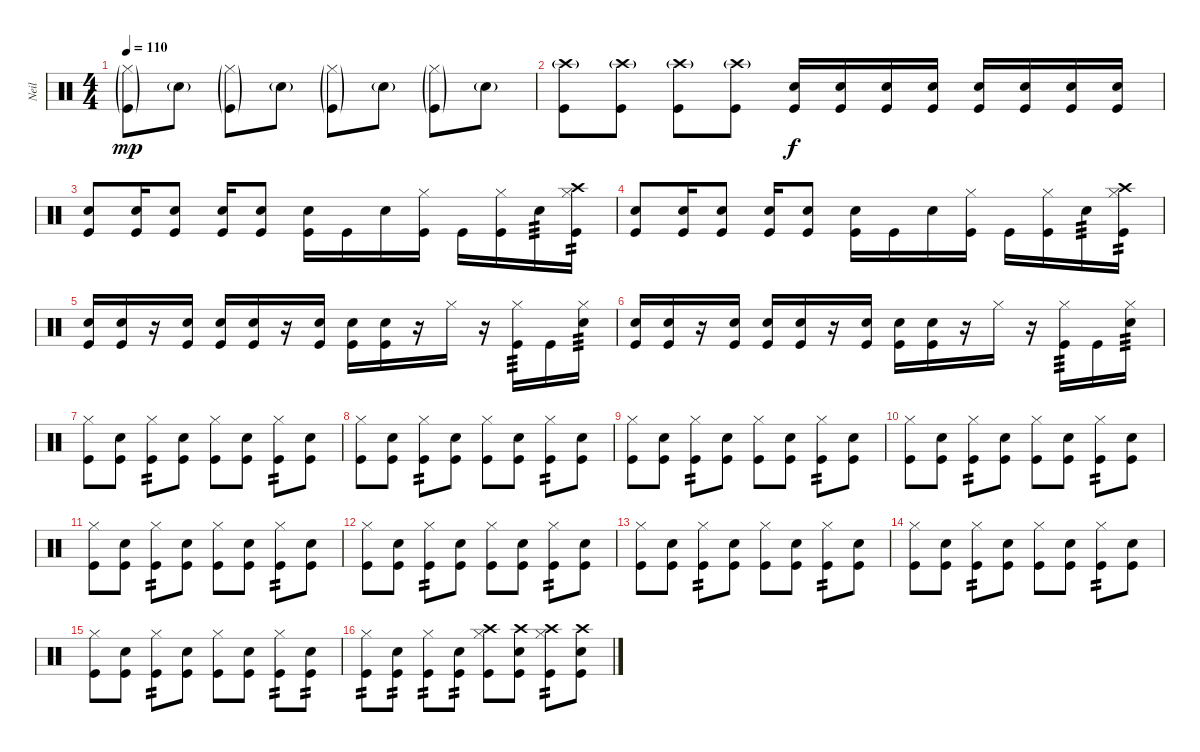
\track ("Neil" "Neil") {instrument percussion}
\staff {score}
\articulation defaults
\ts (4 4)
\tempo 110
\clef neutral
\ks c
("Hi-Hat (closed)"{g} "Kick (hit)"{g}).8{dy mp} "Snare (hit) 2"{g}.8 ("Hi-Hat (closed)"{g} "Kick (hit)"{g}).8 "Snare (hit) 2"{g}.8 ("Hi-Hat (closed)"{g} "Kick (hit)"{g}).8 "Snare (hit) 2"{g}.8 ("Hi-Hat (closed)"{g} "Kick (hit)"{g}).8 "Snare (hit) 2"{g}.8 |
("Crash high (hit)"{g} "Kick (hit)").8 ("Crash high (hit)"{g} "Kick (hit)").8 ("Crash high (hit)"{g} "Kick (hit)").8 ("Crash high (hit)"{g} "Kick (hit)").8 ("Snare (hit) 2" "Kick (hit)").16{dy f} ("Snare (hit) 2" "Kick (hit)").16 ("Snare (hit) 2" "Kick (hit)").16 ("Snare (hit) 2" "Kick (hit)").16 ("Snare (hit) 2" "Kick (hit)").16 ("Snare (hit) 2" "Kick (hit)").16 ("Snare (hit) 2" "Kick (hit)").16 ("Snare (hit) 2" "Kick (hit)").16 |
("Snare (hit) 2" "Kick (hit)").8 ("Snare (hit) 2" "Kick (hit)").16 ("Snare (hit) 2" "Kick (hit)").8 ("Snare (hit) 2" "Kick (hit)").16 ("Snare (hit) 2" "Kick (hit)").8 ("Snare (hit) 2" "Kick (hit)").16 "Kick (hit)".16 "Snare (hit) 2".16 ("Hi-Hat (closed)" "Kick (hit)").16 "Kick (hit)".16 ("Hi-Hat (closed)" "Kick (hit)").16 "Snare (hit) 2".16{tp 3} ("Crash high (hit)" "Hi-Hat (closed)" "Kick (hit)").16{tp 2} |
("Snare (hit) 2" "Kick (hit)").8 ("Snare (hit) 2" "Kick (hit)").16 ("Snare (hit) 2" "Kick (hit)").8 ("Snare (hit) 2" "Kick (hit)").16 ("Snare (hit) 2" "Kick (hit)").8 ("Snare (hit) 2" "Kick (hit)").16 "Kick (hit)".16 "Snare (hit) 2".16 ("Hi-Hat (closed)" "Kick (hit)").16 "Kick (hit)".16 ("Hi-Hat (closed)" "Kick (hit)").16 "Snare (hit) 2".16{tp 3} ("Crash high (hit)" "Hi-Hat (closed)" "Kick (hit)").16{tp 2} |
("Snare (hit) 2" "Kick (hit)").16 ("Snare (hit) 2" "Kick (hit)").16 r.16 ("Snare (hit) 2" "Kick (hit)").16 ("Snare (hit) 2" "Kick (hit)").16 ("Snare (hit) 2" "Kick (hit)").16 r.16 ("Snare (hit) 2" "Kick (hit)").16 ("Snare (hit) 2" "Kick (hit)").16 ("Snare (hit) 2" "Kick (hit)").16 r.16 "Hi-Hat (closed)".16 r.16 ("Hi-Hat (closed)" "Kick (hit)").16{tp 3} "Kick (hit)".16 ("Hi-Hat (closed)" "Snare (hit) 2").16{tp 3} |
("Snare (hit) 2" "Kick (hit)").16 ("Snare (hit) 2" "Kick (hit)").16 r.16 ("Snare (hit) 2" "Kick (hit)").16 ("Snare (hit) 2" "Kick (hit)").16 ("Snare (hit) 2" "Kick (hit)").16 r.16 ("Snare (hit) 2" "Kick (hit)").16 ("Snare (hit) 2" "Kick (hit)").16 ("Snare (hit) 2" "Kick (hit)").16 r.16 "Hi-Hat (closed)".16 r.16 ("Hi-Hat (closed)" "Kick (hit)").16{tp 3} "Kick (hit)".16 ("Hi-Hat (closed)" "Snare (hit) 2").16{tp 3} |
("Hi-Hat (closed)" "Kick (hit)").8 ("Snare (hit) 2" "Kick (hit)").8 ("Hi-Hat (closed)" "Kick (hit)").8{tp 2} ("Snare (hit) 2" "Kick (hit)").8 ("Hi-Hat (closed)" "Kick (hit)").8 ("Snare (hit) 2" "Kick (hit)").8 ("Hi-Hat (closed)" "Kick (hit)").8{tp 2} ("Snare (hit) 2" "Kick (hit)").8 |
("Hi-Hat (closed)" "Kick (hit)").8 ("Snare (hit) 2" "Kick (hit)").8 ("Hi-Hat (closed)" "Kick (hit)").8{tp 2} ("Snare (hit) 2" "Kick (hit)").8 ("Hi-Hat (closed)" "Kick (hit)").8 ("Snare (hit) 2" "Kick (hit)").8 ("Hi-Hat (closed)" "Kick (hit)").8{tp 2} ("Snare (hit) 2" "Kick (hit)").8 |
("Hi-Hat (closed)" "Kick (hit)").8 ("Snare (hit) 2" "Kick (hit)").8 ("Hi-Hat (closed)" "Kick (hit)").8{tp 2} ("Snare (hit) 2" "Kick (hit)").8 ("Hi-Hat (closed)" "Kick (hit)").8 ("Snare (hit) 2" "Kick (hit)").8 ("Hi-Hat (closed)" "Kick (hit)").8{tp 2} ("Snare (hit) 2" "Kick (hit)").8 |
("Hi-Hat (closed)" "Kick (hit)").8 ("Snare (hit) 2" "Kick (hit)").8 ("Hi-Hat (closed)" "Kick (hit)").8{tp 2} ("Snare (hit) 2" "Kick (hit)").8 ("Hi-Hat (closed)" "Kick (hit)").8 ("Snare (hit) 2" "Kick (hit)").8 ("Hi-Hat (closed)" "Kick (hit)").8{tp 2} ("Snare (hit) 2" "Kick (hit)").8 |
("Hi-Hat (closed)" "Kick (hit)").8 ("Snare (hit) 2" "Kick (hit)").8 ("Hi-Hat (closed)" "Kick (hit)").8{tp 2} ("Snare (hit) 2" "Kick (hit)").8 ("Hi-Hat (closed)" "Kick (hit)").8 ("Snare (hit) 2" "Kick (hit)").8 ("Hi-Hat (closed)" "Kick (hit)").8{tp 2} ("Snare (hit) 2" "Kick (hit)").8 |
("Hi-Hat (closed)" "Kick (hit)").8 ("Snare (hit) 2" "Kick (hit)").8 ("Hi-Hat (closed)" "Kick (hit)").8{tp 2} ("Snare (hit) 2" "Kick (hit)").8 ("Hi-Hat (closed)" "Kick (hit)").8 ("Snare (hit) 2" "Kick (hit)").8 ("Hi-Hat (closed)" "Kick (hit)").8{tp 2} ("Snare (hit) 2" "Kick (hit)").8 |
("Hi-Hat (closed)" "Kick (hit)").8 ("Snare (hit) 2" "Kick (hit)").8 ("Hi-Hat (closed)" "Kick (hit)").8{tp 2} ("Snare (hit) 2" "Kick (hit)").8 ("Hi-Hat (closed)" "Kick (hit)").8 ("Snare (hit) 2" "Kick (hit)").8 ("Hi-Hat (closed)" "Kick (hit)").8{tp 2} ("Snare (hit) 2" "Kick (hit)").8 |
("Hi-Hat (closed)" "Kick (hit)").8 ("Snare (hit) 2" "Kick (hit)").8 ("Hi-Hat (closed)" "Kick (hit)").8{tp 2} ("Snare (hit) 2" "Kick (hit)").8 ("Hi-Hat (closed)" "Kick (hit)").8 ("Snare (hit) 2" "Kick (hit)").8 ("Hi-Hat (closed)" "Kick (hit)").8{tp 2} ("Snare (hit) 2" "Kick (hit)").8 |
("Hi-Hat (closed)" "Kick (hit)").8 ("Snare (hit) 2" "Kick (hit)").8 ("Hi-Hat (closed)" "Kick (hit)").8{tp 2} ("Snare (hit) 2" "Kick (hit)").8 ("Hi-Hat (closed)" "Kick (hit)").8 ("Snare (hit) 2" "Kick (hit)").8 ("Hi-Hat (closed)" "Kick (hit)").8{tp 2} ("Snare (hit) 2" "Kick (hit)").8{tp 2} |
("Hi-Hat (closed)" "Kick (hit)").8{tp 2} ("Snare (hit) 2" "Kick (hit)").8{tp 2} ("Hi-Hat (closed)" "Kick (hit)").8{tp 2} ("Snare (hit) 2" "Kick (hit)").8{tp 2} ("Crash high (hit)" "Hi-Hat (closed)" "Kick (hit)").8 ("Crash high (hit)" "Snare (hit) 2" "Kick (hit)").8 ("Crash high (hit)" "Hi-Hat (closed)" "Kick (hit)").8{tp 2} ("Crash high (hit)" "Snare (hit) 2" "Kick (hit)").8
